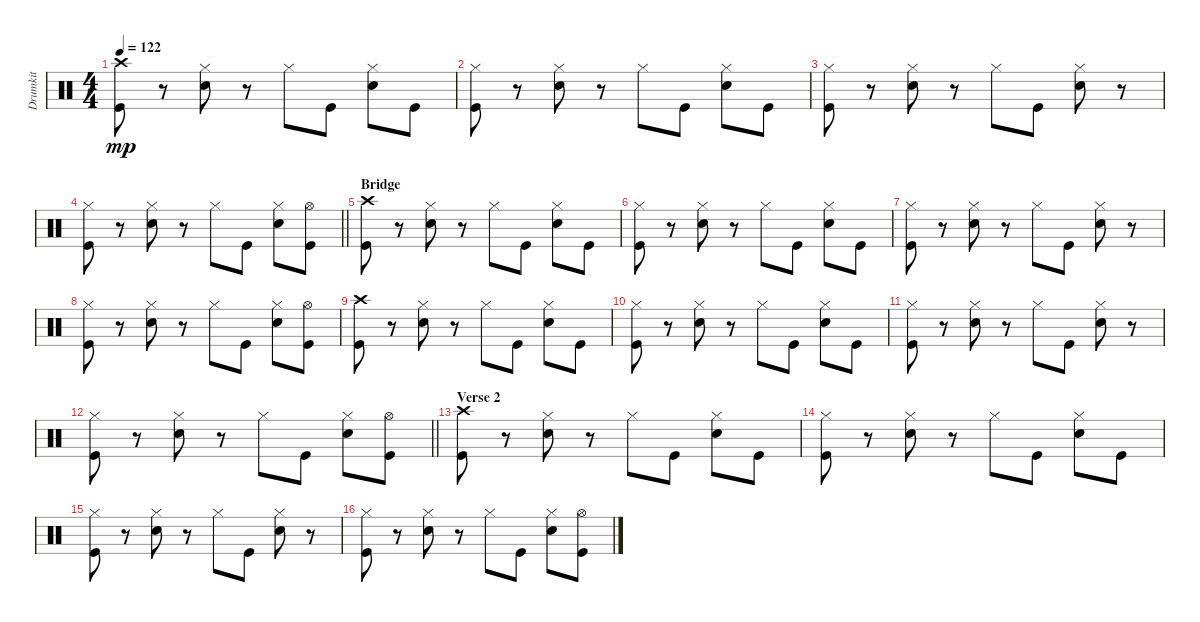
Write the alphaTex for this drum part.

\track ("Drumkit" "Drumkit") {instrument percussion}
\staff {score}
\articulation defaults
\ts (4 4)
\tempo 122
\clef neutral
\ks c
("Kick (hit)" "Crash high (hit)").8{dy mp} r.8 ("Snare (hit) 2" "Hi-Hat (closed)").8 r.8 "Hi-Hat (closed)".8 "Kick (hit)".8 ("Snare (hit) 2" "Hi-Hat (closed)").8 "Kick (hit)".8 |
("Kick (hit)" "Hi-Hat (closed)").8 r.8 ("Snare (hit) 2" "Hi-Hat (closed)").8 r.8 "Hi-Hat (closed)".8 "Kick (hit)".8 ("Snare (hit) 2" "Hi-Hat (closed)").8 "Kick (hit)".8 |
("Kick (hit)" "Hi-Hat (closed)").8 r.8 ("Snare (hit) 2" "Hi-Hat (closed)").8 r.8 "Hi-Hat (closed)".8 "Kick (hit)".8 ("Snare (hit) 2" "Hi-Hat (closed)").8 r.8 |
\barLineRight lightlight
("Kick (hit)" "Hi-Hat (closed)").8 r.8 ("Snare (hit) 2" "Hi-Hat (closed)").8 r.8 "Hi-Hat (closed)".8 "Kick (hit)".8 ("Snare (hit) 2" "Hi-Hat (closed)").8 ("Kick (hit)" "Hi-Hat (open)").8 |
\section ("" "Bridge")
("Kick (hit)" "Crash high (hit)").8 r.8 ("Snare (hit) 2" "Hi-Hat (closed)").8 r.8 "Hi-Hat (closed)".8 "Kick (hit)".8 ("Snare (hit) 2" "Hi-Hat (closed)").8 "Kick (hit)".8 |
("Kick (hit)" "Hi-Hat (closed)").8 r.8 ("Snare (hit) 2" "Hi-Hat (closed)").8 r.8 "Hi-Hat (closed)".8 "Kick (hit)".8 ("Snare (hit) 2" "Hi-Hat (closed)").8 "Kick (hit)".8 |
("Kick (hit)" "Hi-Hat (closed)").8 r.8 ("Snare (hit) 2" "Hi-Hat (closed)").8 r.8 "Hi-Hat (closed)".8 "Kick (hit)".8 ("Snare (hit) 2" "Hi-Hat (closed)").8 r.8 |
("Kick (hit)" "Hi-Hat (closed)").8 r.8 ("Snare (hit) 2" "Hi-Hat (closed)").8 r.8 "Hi-Hat (closed)".8 "Kick (hit)".8 ("Snare (hit) 2" "Hi-Hat (closed)").8 ("Kick (hit)" "Hi-Hat (open)").8 |
("Kick (hit)" "Crash high (hit)").8 r.8 ("Snare (hit) 2" "Hi-Hat (closed)").8 r.8 "Hi-Hat (closed)".8 "Kick (hit)".8 ("Snare (hit) 2" "Hi-Hat (closed)").8 "Kick (hit)".8 |
("Kick (hit)" "Hi-Hat (closed)").8 r.8 ("Snare (hit) 2" "Hi-Hat (closed)").8 r.8 "Hi-Hat (closed)".8 "Kick (hit)".8 ("Snare (hit) 2" "Hi-Hat (closed)").8 "Kick (hit)".8 |
("Kick (hit)" "Hi-Hat (closed)").8 r.8 ("Snare (hit) 2" "Hi-Hat (closed)").8 r.8 "Hi-Hat (closed)".8 "Kick (hit)".8 ("Snare (hit) 2" "Hi-Hat (closed)").8 r.8 |
\barLineRight lightlight
("Kick (hit)" "Hi-Hat (closed)").8 r.8 ("Snare (hit) 2" "Hi-Hat (closed)").8 r.8 "Hi-Hat (closed)".8 "Kick (hit)".8 ("Snare (hit) 2" "Hi-Hat (closed)").8 ("Kick (hit)" "Hi-Hat (open)").8 |
\section ("" "Verse 2")
("Kick (hit)" "Crash high (hit)").8 r.8 ("Snare (hit) 2" "Hi-Hat (closed)").8 r.8 "Hi-Hat (closed)".8 "Kick (hit)".8 ("Snare (hit) 2" "Hi-Hat (closed)").8 "Kick (hit)".8 |
("Kick (hit)" "Hi-Hat (closed)").8 r.8 ("Snare (hit) 2" "Hi-Hat (closed)").8 r.8 "Hi-Hat (closed)".8 "Kick (hit)".8 ("Snare (hit) 2" "Hi-Hat (closed)").8 "Kick (hit)".8 |
("Kick (hit)" "Hi-Hat (closed)").8 r.8 ("Snare (hit) 2" "Hi-Hat (closed)").8 r.8 "Hi-Hat (closed)".8 "Kick (hit)".8 ("Snare (hit) 2" "Hi-Hat (closed)").8 r.8 |
("Kick (hit)" "Hi-Hat (closed)").8 r.8 ("Snare (hit) 2" "Hi-Hat (closed)").8 r.8 "Hi-Hat (closed)".8 "Kick (hit)".8 ("Snare (hit) 2" "Hi-Hat (closed)").8 ("Kick (hit)" "Hi-Hat (open)").8
